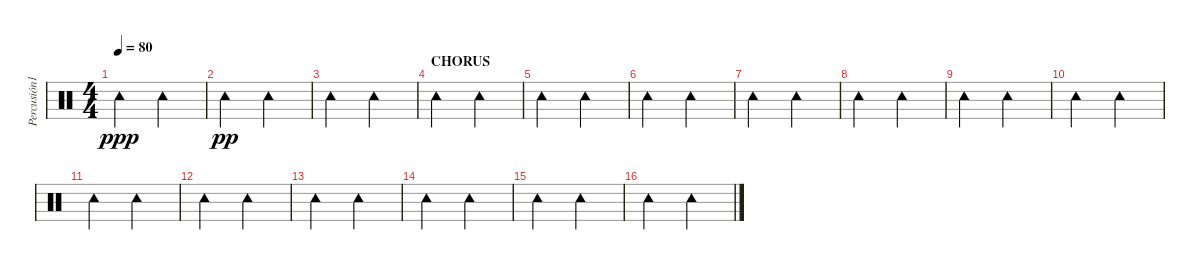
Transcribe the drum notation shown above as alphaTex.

\track ("Percusión1" "Percusión1") {instrument percussion}
\staff {score}
\articulation defaults
\ts (4 4)
\tempo 80
\clef neutral
\ks c "Tambourine (hit)".2{dy ppp} "Tambourine (hit)".2
|
"Tambourine (hit)".2{dy pp} "Tambourine (hit)".2 |
"Tambourine (hit)".2 "Tambourine (hit)".2 |
\section ("" "CHORUS")
"Tambourine (hit)".2 "Tambourine (hit)".2 |
"Tambourine (hit)".2 "Tambourine (hit)".2 |
"Tambourine (hit)".2 "Tambourine (hit)".2 |
"Tambourine (hit)".2 "Tambourine (hit)".2 |
"Tambourine (hit)".2 "Tambourine (hit)".2 |
"Tambourine (hit)".2 "Tambourine (hit)".2 |
"Tambourine (hit)".2 "Tambourine (hit)".2 |
"Tambourine (hit)".2 "Tambourine (hit)".2 |
"Tambourine (hit)".2 "Tambourine (hit)".2 |
"Tambourine (hit)".2 "Tambourine (hit)".2 |
"Tambourine (hit)".2 "Tambourine (hit)".2 |
"Tambourine (hit)".2 "Tambourine (hit)".2 |
"Tambourine (hit)".2 "Tambourine (hit)".2
